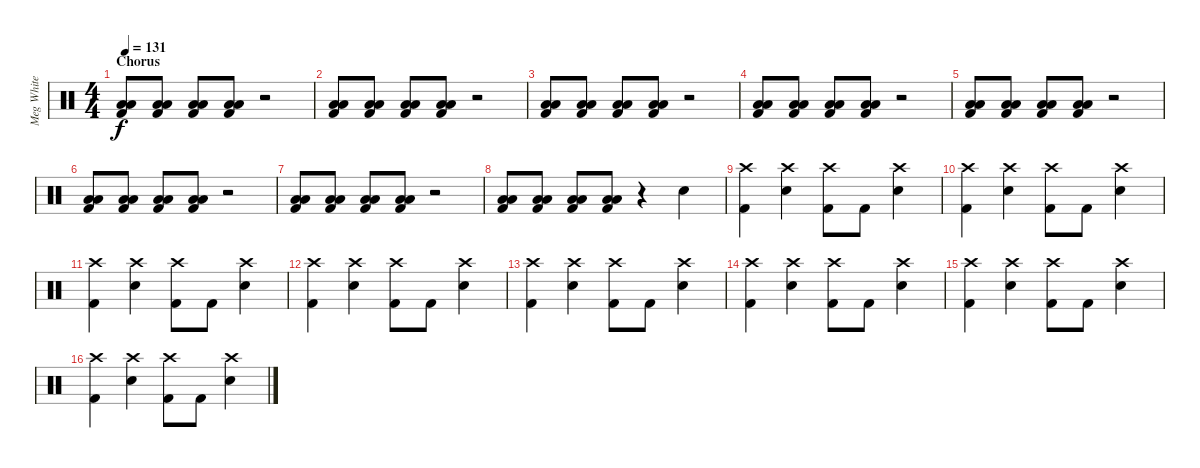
\track ("Meg White - Drums" "Meg White ") {instrument percussion}
\staff {score}
\articulation defaults
\ts (4 4)
\section ("" "Chorus")
\tempo 131
\clef neutral
\ks c
("Low Floor Tom (hit)" "Low Floor Tom (hit)" "Kick (hit) 2").8{dy f} ("Low Floor Tom (hit)" "Low Floor Tom (hit)" "Kick (hit) 2").8 ("Low Floor Tom (hit)" "Low Floor Tom (hit)" "Kick (hit) 2").8 ("Low Floor Tom (hit)" "Low Floor Tom (hit)" "Kick (hit) 2").8 r.2 |
("Low Floor Tom (hit)" "Low Floor Tom (hit)" "Kick (hit) 2").8 ("Low Floor Tom (hit)" "Low Floor Tom (hit)" "Kick (hit) 2").8 ("Low Floor Tom (hit)" "Low Floor Tom (hit)" "Kick (hit) 2").8 ("Low Floor Tom (hit)" "Low Floor Tom (hit)" "Kick (hit) 2").8 r.2 |
("Low Floor Tom (hit)" "Low Floor Tom (hit)" "Kick (hit) 2").8 ("Low Floor Tom (hit)" "Low Floor Tom (hit)" "Kick (hit) 2").8 ("Low Floor Tom (hit)" "Low Floor Tom (hit)" "Kick (hit) 2").8 ("Low Floor Tom (hit)" "Low Floor Tom (hit)" "Kick (hit) 2").8 r.2 |
("Low Floor Tom (hit)" "Low Floor Tom (hit)" "Kick (hit) 2").8 ("Low Floor Tom (hit)" "Low Floor Tom (hit)" "Kick (hit) 2").8 ("Low Floor Tom (hit)" "Low Floor Tom (hit)" "Kick (hit) 2").8 ("Low Floor Tom (hit)" "Low Floor Tom (hit)" "Kick (hit) 2").8 r.2 |
("Low Floor Tom (hit)" "Low Floor Tom (hit)" "Kick (hit) 2").8 ("Low Floor Tom (hit)" "Low Floor Tom (hit)" "Kick (hit) 2").8 ("Low Floor Tom (hit)" "Low Floor Tom (hit)" "Kick (hit) 2").8 ("Low Floor Tom (hit)" "Low Floor Tom (hit)" "Kick (hit) 2").8 r.2 |
("Low Floor Tom (hit)" "Low Floor Tom (hit)" "Kick (hit) 2").8 ("Low Floor Tom (hit)" "Low Floor Tom (hit)" "Kick (hit) 2").8 ("Low Floor Tom (hit)" "Low Floor Tom (hit)" "Kick (hit) 2").8 ("Low Floor Tom (hit)" "Low Floor Tom (hit)" "Kick (hit) 2").8 r.2 |
("Low Floor Tom (hit)" "Low Floor Tom (hit)" "Kick (hit) 2").8 ("Low Floor Tom (hit)" "Low Floor Tom (hit)" "Kick (hit) 2").8 ("Low Floor Tom (hit)" "Low Floor Tom (hit)" "Kick (hit) 2").8 ("Low Floor Tom (hit)" "Low Floor Tom (hit)" "Kick (hit) 2").8 r.2 |
("Low Floor Tom (hit)" "Low Floor Tom (hit)" "Kick (hit) 2").8 ("Low Floor Tom (hit)" "Low Floor Tom (hit)" "Kick (hit) 2").8 ("Low Floor Tom (hit)" "Low Floor Tom (hit)" "Kick (hit) 2").8 ("Low Floor Tom (hit)" "Low Floor Tom (hit)" "Kick (hit) 2").8 r.4 "Electric Snare (hit)".4 |
("Crash high (hit)" "Kick (hit) 2").4 ("Crash high (hit)" "Electric Snare (hit)").4 ("Crash high (hit)" "Kick (hit) 2").8 "Kick (hit) 2".8 ("Crash high (hit)" "Electric Snare (hit)").4 |
("Crash high (hit)" "Kick (hit) 2").4 ("Crash high (hit)" "Electric Snare (hit)").4 ("Crash high (hit)" "Kick (hit) 2").8 "Kick (hit) 2".8 ("Crash high (hit)" "Electric Snare (hit)").4 |
("Crash high (hit)" "Kick (hit) 2").4 ("Crash high (hit)" "Electric Snare (hit)").4 ("Crash high (hit)" "Kick (hit) 2").8 "Kick (hit) 2".8 ("Crash high (hit)" "Electric Snare (hit)").4 |
("Crash high (hit)" "Kick (hit) 2").4 ("Crash high (hit)" "Electric Snare (hit)").4 ("Crash high (hit)" "Kick (hit) 2").8 "Kick (hit) 2".8 ("Crash high (hit)" "Electric Snare (hit)").4 |
("Crash high (hit)" "Kick (hit) 2").4 ("Crash high (hit)" "Electric Snare (hit)").4 ("Crash high (hit)" "Kick (hit) 2").8 "Kick (hit) 2".8 ("Crash high (hit)" "Electric Snare (hit)").4 |
("Crash high (hit)" "Kick (hit) 2").4 ("Crash high (hit)" "Electric Snare (hit)").4 ("Crash high (hit)" "Kick (hit) 2").8 "Kick (hit) 2".8 ("Crash high (hit)" "Electric Snare (hit)").4 |
("Crash high (hit)" "Kick (hit) 2").4 ("Crash high (hit)" "Electric Snare (hit)").4 ("Crash high (hit)" "Kick (hit) 2").8 "Kick (hit) 2".8 ("Crash high (hit)" "Electric Snare (hit)").4 |
("Crash high (hit)" "Kick (hit) 2").4 ("Crash high (hit)" "Electric Snare (hit)").4 ("Crash high (hit)" "Kick (hit) 2").8 "Kick (hit) 2".8 ("Crash high (hit)" "Electric Snare (hit)").4
